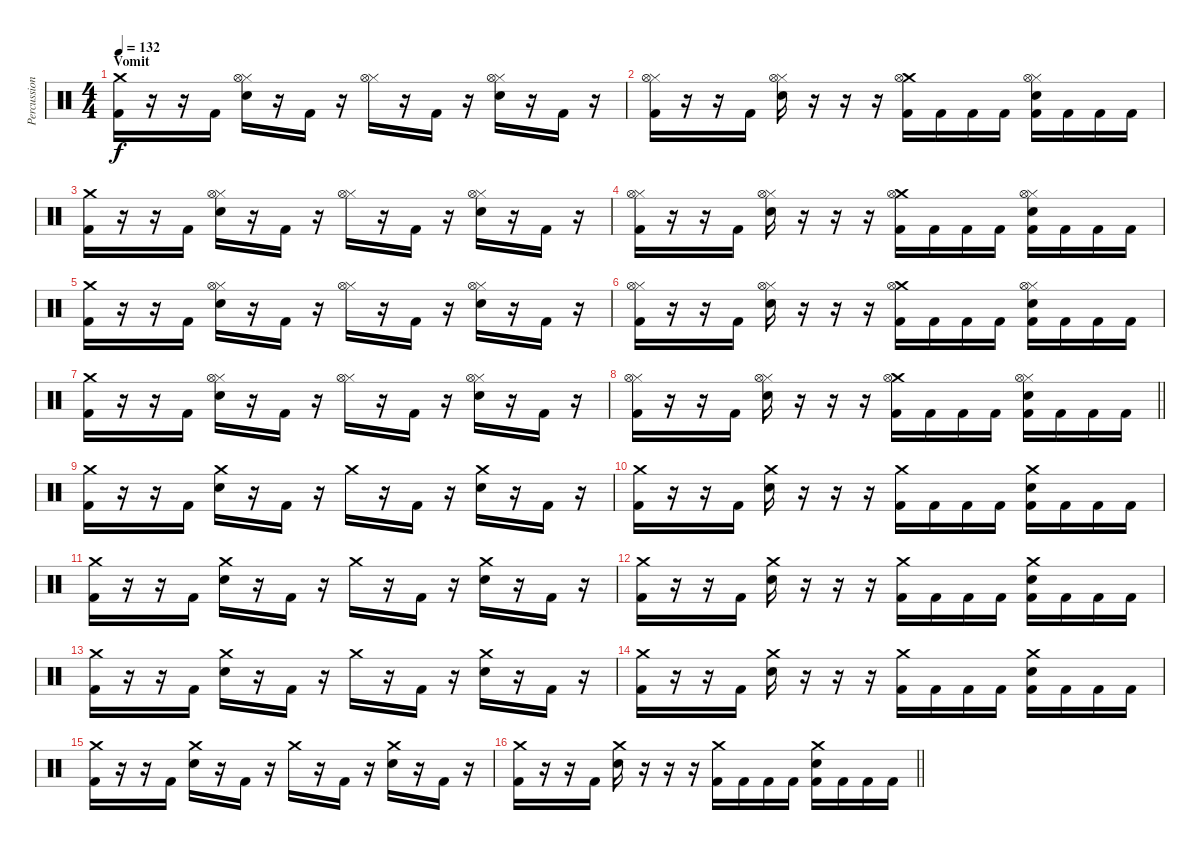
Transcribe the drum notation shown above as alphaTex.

\track ("Percussion" "Percussion") {instrument percussion}
\staff {score}
\articulation defaults
\ts (4 4)
\section ("" "Vomit")
\tempo 132
\clef neutral
\ks c
("Crash medium (hit)" "Kick (hit) 2").16{dy f} r.16 r.16 "Kick (hit) 2".16 ("Hi-Hat (closed)" "Snare (hit) 2" "Hi-Hat (open)").16 r.16 "Kick (hit) 2".16 r.16 ("Hi-Hat (closed)" "Hi-Hat (open)").16 r.16 "Kick (hit) 2".16 r.16 ("Hi-Hat (closed)" "Snare (hit) 2" "Hi-Hat (open)").16 r.16 "Kick (hit) 2".16 r.16 |
("Hi-Hat (closed)" "Kick (hit) 2" "Hi-Hat (open)").16 r.16 r.16 "Kick (hit) 2".16 ("Hi-Hat (closed)" "Snare (hit) 2" "Hi-Hat (open)").16 r.16 r.16 r.16 ("Crash medium (hit)" "Kick (hit) 2" "Hi-Hat (open)").16 "Kick (hit) 2".16 "Kick (hit) 2".16 "Kick (hit) 2".16 ("Hi-Hat (closed)" "Snare (hit) 2" "Kick (hit) 2" "Hi-Hat (open)").16 "Kick (hit) 2".16 "Kick (hit) 2".16 "Kick (hit) 2".16 |
("Crash medium (hit)" "Kick (hit) 2").16 r.16 r.16 "Kick (hit) 2".16 ("Hi-Hat (closed)" "Snare (hit) 2" "Hi-Hat (open)").16 r.16 "Kick (hit) 2".16 r.16 ("Hi-Hat (closed)" "Hi-Hat (open)").16 r.16 "Kick (hit) 2".16 r.16 ("Hi-Hat (closed)" "Snare (hit) 2" "Hi-Hat (open)").16 r.16 "Kick (hit) 2".16 r.16 |
("Hi-Hat (closed)" "Kick (hit) 2" "Hi-Hat (open)").16 r.16 r.16 "Kick (hit) 2".16 ("Hi-Hat (closed)" "Snare (hit) 2" "Hi-Hat (open)").16 r.16 r.16 r.16 ("Crash medium (hit)" "Kick (hit) 2" "Hi-Hat (open)").16 "Kick (hit) 2".16 "Kick (hit) 2".16 "Kick (hit) 2".16 ("Hi-Hat (closed)" "Snare (hit) 2" "Kick (hit) 2" "Hi-Hat (open)").16 "Kick (hit) 2".16 "Kick (hit) 2".16 "Kick (hit) 2".16 |
("Crash medium (hit)" "Kick (hit) 2").16 r.16 r.16 "Kick (hit) 2".16 ("Hi-Hat (closed)" "Snare (hit) 2" "Hi-Hat (open)").16 r.16 "Kick (hit) 2".16 r.16 ("Hi-Hat (closed)" "Hi-Hat (open)").16 r.16 "Kick (hit) 2".16 r.16 ("Hi-Hat (closed)" "Snare (hit) 2" "Hi-Hat (open)").16 r.16 "Kick (hit) 2".16 r.16 |
("Hi-Hat (closed)" "Kick (hit) 2" "Hi-Hat (open)").16 r.16 r.16 "Kick (hit) 2".16 ("Hi-Hat (closed)" "Snare (hit) 2" "Hi-Hat (open)").16 r.16 r.16 r.16 ("Crash medium (hit)" "Kick (hit) 2" "Hi-Hat (open)").16 "Kick (hit) 2".16 "Kick (hit) 2".16 "Kick (hit) 2".16 ("Hi-Hat (closed)" "Snare (hit) 2" "Kick (hit) 2" "Hi-Hat (open)").16 "Kick (hit) 2".16 "Kick (hit) 2".16 "Kick (hit) 2".16 |
("Crash medium (hit)" "Kick (hit) 2").16 r.16 r.16 "Kick (hit) 2".16 ("Hi-Hat (closed)" "Snare (hit) 2" "Hi-Hat (open)").16 r.16 "Kick (hit) 2".16 r.16 ("Hi-Hat (closed)" "Hi-Hat (open)").16 r.16 "Kick (hit) 2".16 r.16 ("Hi-Hat (closed)" "Snare (hit) 2" "Hi-Hat (open)").16 r.16 "Kick (hit) 2".16 r.16 |
\barLineRight lightlight
("Hi-Hat (closed)" "Kick (hit) 2" "Hi-Hat (open)").16 r.16 r.16 "Kick (hit) 2".16 ("Hi-Hat (closed)" "Snare (hit) 2" "Hi-Hat (open)").16 r.16 r.16 r.16 ("Crash medium (hit)" "Kick (hit) 2" "Hi-Hat (open)").16 "Kick (hit) 2".16 "Kick (hit) 2".16 "Kick (hit) 2".16 ("Hi-Hat (closed)" "Snare (hit) 2" "Kick (hit) 2" "Hi-Hat (open)").16 "Kick (hit) 2".16 "Kick (hit) 2".16 "Kick (hit) 2".16 |
("Crash medium (hit)" "Kick (hit) 2").16 r.16 r.16 "Kick (hit) 2".16 ("Crash medium (hit)" "Snare (hit) 2").16 r.16 "Kick (hit) 2".16 r.16 "Crash medium (hit)".16 r.16 "Kick (hit) 2".16 r.16 ("Crash medium (hit)" "Snare (hit) 2").16 r.16 "Kick (hit) 2".16 r.16 |
("Crash medium (hit)" "Kick (hit) 2").16 r.16 r.16 "Kick (hit) 2".16 ("Crash medium (hit)" "Snare (hit) 2").16 r.16 r.16 r.16 ("Crash medium (hit)" "Kick (hit) 2").16 "Kick (hit) 2".16 "Kick (hit) 2".16 "Kick (hit) 2".16 ("Crash medium (hit)" "Snare (hit) 2" "Kick (hit) 2").16 "Kick (hit) 2".16 "Kick (hit) 2".16 "Kick (hit) 2".16 |
("Crash medium (hit)" "Kick (hit) 2").16 r.16 r.16 "Kick (hit) 2".16 ("Crash medium (hit)" "Snare (hit) 2").16 r.16 "Kick (hit) 2".16 r.16 "Crash medium (hit)".16 r.16 "Kick (hit) 2".16 r.16 ("Crash medium (hit)" "Snare (hit) 2").16 r.16 "Kick (hit) 2".16 r.16 |
("Crash medium (hit)" "Kick (hit) 2").16 r.16 r.16 "Kick (hit) 2".16 ("Crash medium (hit)" "Snare (hit) 2").16 r.16 r.16 r.16 ("Crash medium (hit)" "Kick (hit) 2").16 "Kick (hit) 2".16 "Kick (hit) 2".16 "Kick (hit) 2".16 ("Crash medium (hit)" "Snare (hit) 2" "Kick (hit) 2").16 "Kick (hit) 2".16 "Kick (hit) 2".16 "Kick (hit) 2".16 |
("Crash medium (hit)" "Kick (hit) 2").16 r.16 r.16 "Kick (hit) 2".16 ("Crash medium (hit)" "Snare (hit) 2").16 r.16 "Kick (hit) 2".16 r.16 "Crash medium (hit)".16 r.16 "Kick (hit) 2".16 r.16 ("Crash medium (hit)" "Snare (hit) 2").16 r.16 "Kick (hit) 2".16 r.16 |
("Crash medium (hit)" "Kick (hit) 2").16 r.16 r.16 "Kick (hit) 2".16 ("Crash medium (hit)" "Snare (hit) 2").16 r.16 r.16 r.16 ("Crash medium (hit)" "Kick (hit) 2").16 "Kick (hit) 2".16 "Kick (hit) 2".16 "Kick (hit) 2".16 ("Crash medium (hit)" "Snare (hit) 2" "Kick (hit) 2").16 "Kick (hit) 2".16 "Kick (hit) 2".16 "Kick (hit) 2".16 |
("Crash medium (hit)" "Kick (hit) 2").16 r.16 r.16 "Kick (hit) 2".16 ("Crash medium (hit)" "Snare (hit) 2").16 r.16 "Kick (hit) 2".16 r.16 "Crash medium (hit)".16 r.16 "Kick (hit) 2".16 r.16 ("Crash medium (hit)" "Snare (hit) 2").16 r.16 "Kick (hit) 2".16 r.16 |
\barLineRight lightlight
("Crash medium (hit)" "Kick (hit) 2").16 r.16 r.16 "Kick (hit) 2".16 ("Crash medium (hit)" "Snare (hit) 2").16 r.16 r.16 r.16 ("Crash medium (hit)" "Kick (hit) 2").16 "Kick (hit) 2".16 "Kick (hit) 2".16 "Kick (hit) 2".16 ("Crash medium (hit)" "Snare (hit) 2" "Kick (hit) 2").16 "Kick (hit) 2".16 "Kick (hit) 2".16 "Kick (hit) 2".16
